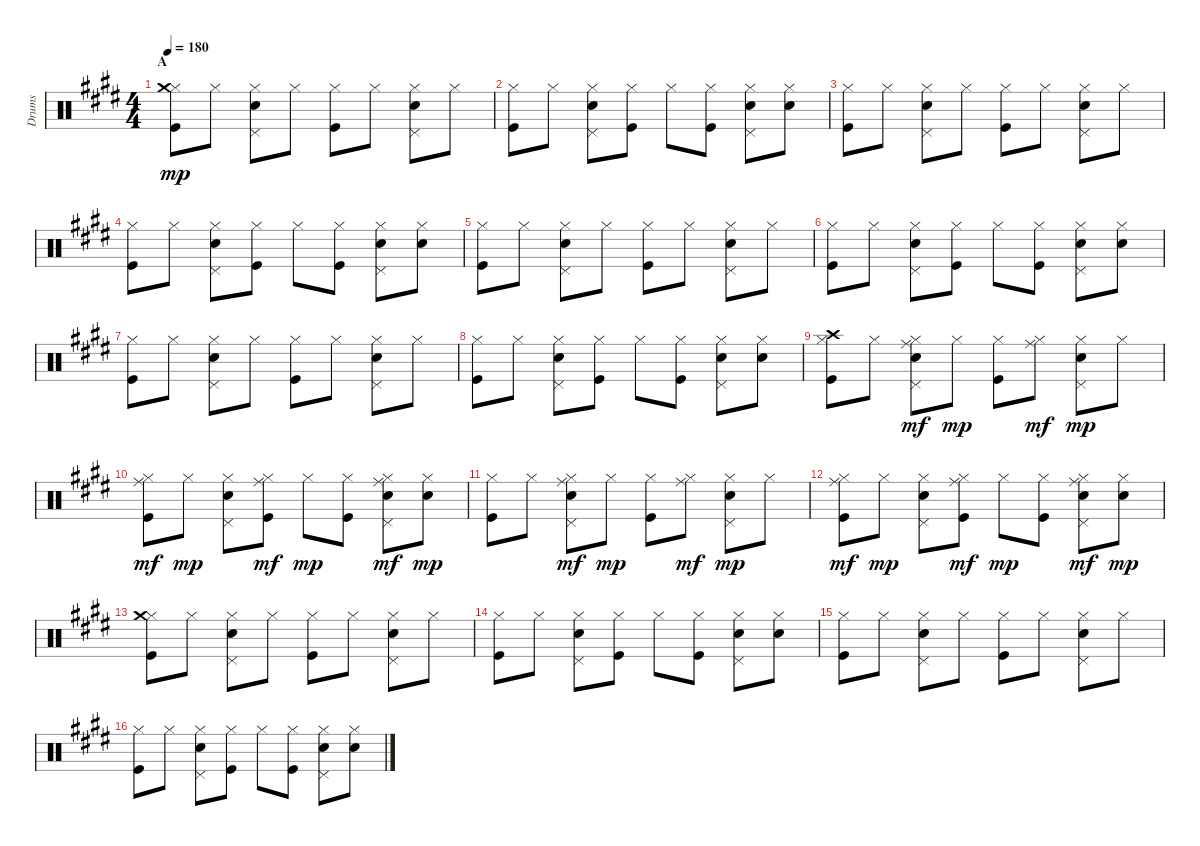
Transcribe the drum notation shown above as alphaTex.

\track ("Drums" "Drums") {instrument percussion}
\staff {score}
\articulation defaults
\ts (4 4)
\section ("" "A")
\tempo 180
\clef neutral
\ks e
("Hi-Hat (closed)" "Crash medium (hit)" "Kick (hit)").8{dy mp} "Hi-Hat (closed)".8 ("Hi-Hat (closed)" "Snare (hit) 2" "Pedal Hi-Hat (hit)").8 "Hi-Hat (closed)".8 ("Hi-Hat (closed)" "Kick (hit)").8 "Hi-Hat (closed)".8 ("Hi-Hat (closed)" "Snare (hit) 2" "Pedal Hi-Hat (hit)").8 "Hi-Hat (closed)".8 |
("Hi-Hat (closed)" "Kick (hit)").8 "Hi-Hat (closed)".8 ("Hi-Hat (closed)" "Snare (hit) 2" "Pedal Hi-Hat (hit)").8 ("Hi-Hat (closed)" "Kick (hit)").8 "Hi-Hat (closed)".8 ("Hi-Hat (closed)" "Kick (hit)").8 ("Hi-Hat (closed)" "Snare (hit) 2" "Pedal Hi-Hat (hit)").8 ("Hi-Hat (closed)" "Snare (hit) 2").8 |
("Hi-Hat (closed)" "Kick (hit)").8 "Hi-Hat (closed)".8 ("Hi-Hat (closed)" "Snare (hit) 2" "Pedal Hi-Hat (hit)").8 "Hi-Hat (closed)".8 ("Hi-Hat (closed)" "Kick (hit)").8 "Hi-Hat (closed)".8 ("Hi-Hat (closed)" "Snare (hit) 2" "Pedal Hi-Hat (hit)").8 "Hi-Hat (closed)".8 |
("Hi-Hat (closed)" "Kick (hit)").8 "Hi-Hat (closed)".8 ("Hi-Hat (closed)" "Snare (hit) 2" "Pedal Hi-Hat (hit)").8 ("Hi-Hat (closed)" "Kick (hit)").8 "Hi-Hat (closed)".8 ("Hi-Hat (closed)" "Kick (hit)").8 ("Hi-Hat (closed)" "Snare (hit) 2" "Pedal Hi-Hat (hit)").8 ("Hi-Hat (closed)" "Snare (hit) 2").8 |
("Hi-Hat (closed)" "Kick (hit)").8 "Hi-Hat (closed)".8 ("Hi-Hat (closed)" "Snare (hit) 2" "Pedal Hi-Hat (hit)").8 "Hi-Hat (closed)".8 ("Hi-Hat (closed)" "Kick (hit)").8 "Hi-Hat (closed)".8 ("Hi-Hat (closed)" "Snare (hit) 2" "Pedal Hi-Hat (hit)").8 "Hi-Hat (closed)".8 |
("Hi-Hat (closed)" "Kick (hit)").8 "Hi-Hat (closed)".8 ("Hi-Hat (closed)" "Snare (hit) 2" "Pedal Hi-Hat (hit)").8 ("Hi-Hat (closed)" "Kick (hit)").8 "Hi-Hat (closed)".8 ("Hi-Hat (closed)" "Kick (hit)").8 ("Hi-Hat (closed)" "Snare (hit) 2" "Pedal Hi-Hat (hit)").8 ("Hi-Hat (closed)" "Snare (hit) 2").8 |
("Hi-Hat (closed)" "Kick (hit)").8 "Hi-Hat (closed)".8 ("Hi-Hat (closed)" "Snare (hit) 2" "Pedal Hi-Hat (hit)").8 "Hi-Hat (closed)".8 ("Hi-Hat (closed)" "Kick (hit)").8 "Hi-Hat (closed)".8 ("Hi-Hat (closed)" "Snare (hit) 2" "Pedal Hi-Hat (hit)").8 "Hi-Hat (closed)".8 |
("Hi-Hat (closed)" "Kick (hit)").8 "Hi-Hat (closed)".8 ("Hi-Hat (closed)" "Snare (hit) 2" "Pedal Hi-Hat (hit)").8 ("Hi-Hat (closed)" "Kick (hit)").8 "Hi-Hat (closed)".8 ("Hi-Hat (closed)" "Kick (hit)").8 ("Hi-Hat (closed)" "Snare (hit) 2" "Pedal Hi-Hat (hit)").8 ("Hi-Hat (closed)" "Snare (hit) 2").8 |
("Hi-Hat (closed)" "Crash high (hit)" "Kick (hit)").8 "Hi-Hat (closed)".8 ("Hi-Hat (closed)" "Ride (middle)" "Snare (hit) 2" "Pedal Hi-Hat (hit)").8{dy mf} "Hi-Hat (closed)".8{dy mp} ("Hi-Hat (closed)" "Kick (hit)").8 ("Hi-Hat (closed)" "Ride (middle)").8{dy mf} ("Hi-Hat (closed)" "Snare (hit) 2" "Pedal Hi-Hat (hit)").8{dy mp} "Hi-Hat (closed)".8 |
("Hi-Hat (closed)" "Ride (middle)" "Kick (hit)").8{dy mf} "Hi-Hat (closed)".8{dy mp} ("Hi-Hat (closed)" "Snare (hit) 2" "Pedal Hi-Hat (hit)").8 ("Hi-Hat (closed)" "Ride (middle)" "Kick (hit)").8{dy mf} "Hi-Hat (closed)".8{dy mp} ("Hi-Hat (closed)" "Kick (hit)").8 ("Hi-Hat (closed)" "Ride (middle)" "Snare (hit) 2" "Pedal Hi-Hat (hit)").8{dy mf} ("Hi-Hat (closed)" "Snare (hit) 2").8{dy mp} |
("Hi-Hat (closed)" "Kick (hit)").8 "Hi-Hat (closed)".8 ("Hi-Hat (closed)" "Ride (middle)" "Snare (hit) 2" "Pedal Hi-Hat (hit)").8{dy mf} "Hi-Hat (closed)".8{dy mp} ("Hi-Hat (closed)" "Kick (hit)").8 ("Hi-Hat (closed)" "Ride (middle)").8{dy mf} ("Hi-Hat (closed)" "Snare (hit) 2" "Pedal Hi-Hat (hit)").8{dy mp} "Hi-Hat (closed)".8 |
("Hi-Hat (closed)" "Ride (middle)" "Kick (hit)").8{dy mf} "Hi-Hat (closed)".8{dy mp} ("Hi-Hat (closed)" "Snare (hit) 2" "Pedal Hi-Hat (hit)").8 ("Hi-Hat (closed)" "Ride (middle)" "Kick (hit)").8{dy mf} "Hi-Hat (closed)".8{dy mp} ("Hi-Hat (closed)" "Kick (hit)").8 ("Hi-Hat (closed)" "Ride (middle)" "Snare (hit) 2" "Pedal Hi-Hat (hit)").8{dy mf} ("Hi-Hat (closed)" "Snare (hit) 2").8{dy mp} |
("Hi-Hat (closed)" "Crash medium (hit)" "Kick (hit)").8 "Hi-Hat (closed)".8 ("Hi-Hat (closed)" "Snare (hit) 2" "Pedal Hi-Hat (hit)").8 "Hi-Hat (closed)".8 ("Hi-Hat (closed)" "Kick (hit)").8 "Hi-Hat (closed)".8 ("Hi-Hat (closed)" "Snare (hit) 2" "Pedal Hi-Hat (hit)").8 "Hi-Hat (closed)".8 |
("Hi-Hat (closed)" "Kick (hit)").8 "Hi-Hat (closed)".8 ("Hi-Hat (closed)" "Snare (hit) 2" "Pedal Hi-Hat (hit)").8 ("Hi-Hat (closed)" "Kick (hit)").8 "Hi-Hat (closed)".8 ("Hi-Hat (closed)" "Kick (hit)").8 ("Hi-Hat (closed)" "Snare (hit) 2" "Pedal Hi-Hat (hit)").8 ("Hi-Hat (closed)" "Snare (hit) 2").8 |
("Hi-Hat (closed)" "Kick (hit)").8 "Hi-Hat (closed)".8 ("Hi-Hat (closed)" "Snare (hit) 2" "Pedal Hi-Hat (hit)").8 "Hi-Hat (closed)".8 ("Hi-Hat (closed)" "Kick (hit)").8 "Hi-Hat (closed)".8 ("Hi-Hat (closed)" "Snare (hit) 2" "Pedal Hi-Hat (hit)").8 "Hi-Hat (closed)".8 |
("Hi-Hat (closed)" "Kick (hit)").8 "Hi-Hat (closed)".8 ("Hi-Hat (closed)" "Snare (hit) 2" "Pedal Hi-Hat (hit)").8 ("Hi-Hat (closed)" "Kick (hit)").8 "Hi-Hat (closed)".8 ("Hi-Hat (closed)" "Kick (hit)").8 ("Hi-Hat (closed)" "Snare (hit) 2" "Pedal Hi-Hat (hit)").8 ("Hi-Hat (closed)" "Snare (hit) 2").8
